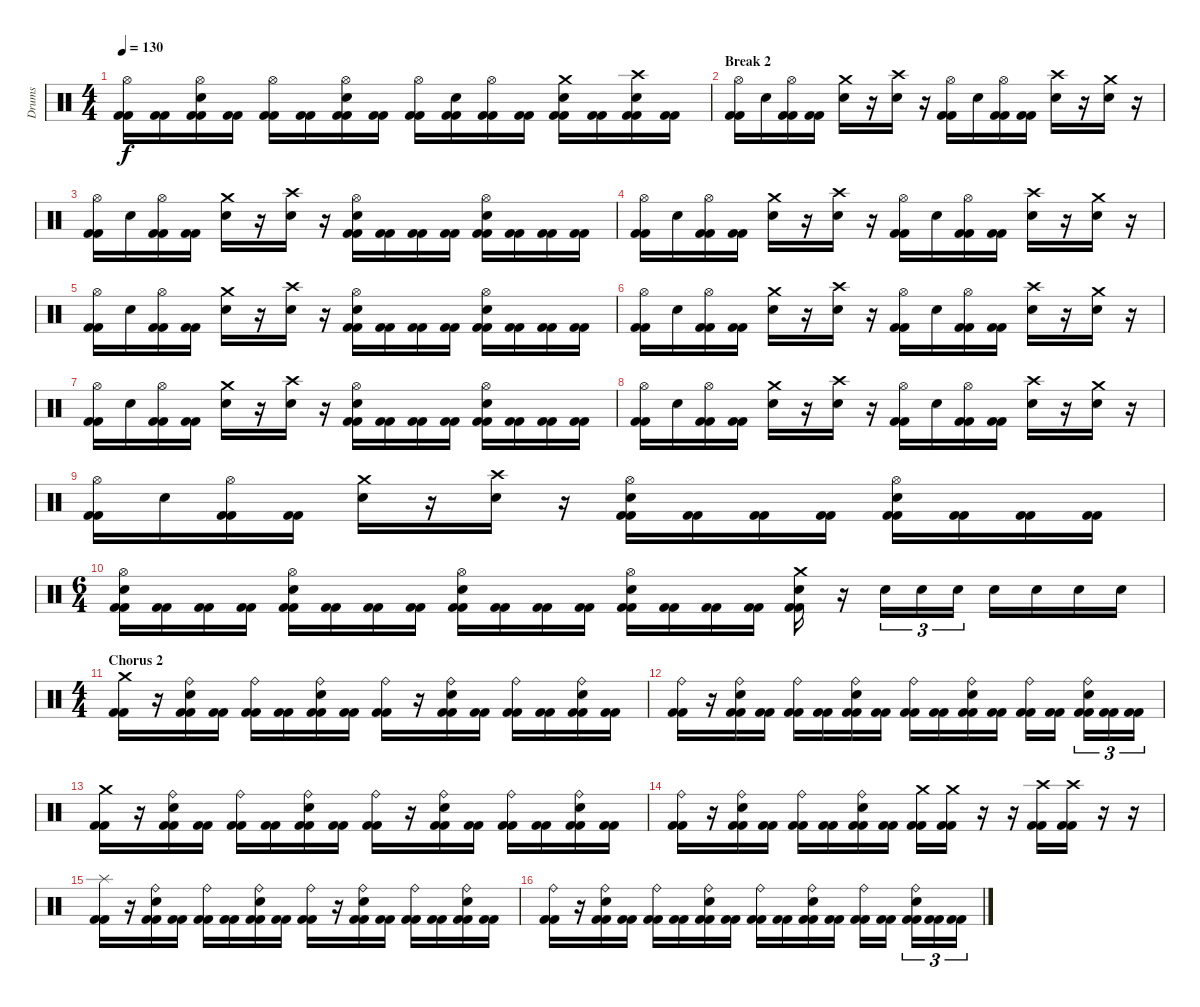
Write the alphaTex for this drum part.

\track ("Drums" "Drums") {instrument percussion}
\staff {score}
\articulation defaults
\ts (4 4)
\tempo 130
\clef neutral
\ks c
("Hi-Hat (open)" "Kick (hit) 2" "Kick (hit) 2").16{dy f} ("Kick (hit) 2" "Kick (hit) 2").16 ("Hi-Hat (open)" "Electric Snare (hit)" "Kick (hit) 2" "Kick (hit) 2").16 ("Kick (hit) 2" "Kick (hit) 2").16 ("Hi-Hat (open)" "Kick (hit) 2" "Kick (hit) 2").16 ("Kick (hit) 2" "Kick (hit) 2").16 ("Hi-Hat (open)" "Electric Snare (hit)" "Kick (hit) 2" "Kick (hit) 2").16 ("Kick (hit) 2" "Kick (hit) 2").16 ("Hi-Hat (open)" "Kick (hit) 2" "Kick (hit) 2").16 ("Electric Snare (hit)" "Kick (hit) 2" "Kick (hit) 2").16 ("Hi-Hat (open)" "Kick (hit) 2" "Kick (hit) 2").16 ("Kick (hit) 2" "Kick (hit) 2").16 ("Crash medium (hit)" "Electric Snare (hit)" "Kick (hit) 2" "Kick (hit) 2").16 ("Kick (hit) 2" "Kick (hit) 2").16 ("Crash high (hit)" "Electric Snare (hit)" "Kick (hit) 2" "Kick (hit) 2").16 ("Kick (hit) 2" "Kick (hit) 2").16 |
\section ("" "Break 2")
("Hi-Hat (open)" "Kick (hit) 2" "Kick (hit) 2").16 "Electric Snare (hit)".16 ("Hi-Hat (open)" "Kick (hit) 2" "Kick (hit) 2").16 ("Kick (hit) 2" "Kick (hit) 2").16 ("Crash medium (hit)" "Electric Snare (hit)").16 r.16 ("Crash high (hit)" "Electric Snare (hit)").16 r.16 ("Hi-Hat (open)" "Kick (hit) 2" "Kick (hit) 2").16 "Electric Snare (hit)".16 ("Hi-Hat (open)" "Kick (hit) 2" "Kick (hit) 2").16 ("Kick (hit) 2" "Kick (hit) 2").16 ("Crash high (hit)" "Electric Snare (hit)").16 r.16 ("Crash medium (hit)" "Electric Snare (hit)").16 r.16 |
("Hi-Hat (open)" "Kick (hit) 2" "Kick (hit) 2").16 "Electric Snare (hit)".16 ("Hi-Hat (open)" "Kick (hit) 2" "Kick (hit) 2").16 ("Kick (hit) 2" "Kick (hit) 2").16 ("Crash medium (hit)" "Electric Snare (hit)").16 r.16 ("Crash high (hit)" "Electric Snare (hit)").16 r.16 ("Hi-Hat (open)" "Electric Snare (hit)" "Kick (hit) 2" "Kick (hit) 2").16 ("Kick (hit) 2" "Kick (hit) 2").16 ("Kick (hit) 2" "Kick (hit) 2").16 ("Kick (hit) 2" "Kick (hit) 2").16 ("Hi-Hat (open)" "Electric Snare (hit)" "Kick (hit) 2" "Kick (hit) 2").16 ("Kick (hit) 2" "Kick (hit) 2").16 ("Kick (hit) 2" "Kick (hit) 2").16 ("Kick (hit) 2" "Kick (hit) 2").16 |
("Hi-Hat (open)" "Kick (hit) 2" "Kick (hit) 2").16 "Electric Snare (hit)".16 ("Hi-Hat (open)" "Kick (hit) 2" "Kick (hit) 2").16 ("Kick (hit) 2" "Kick (hit) 2").16 ("Crash medium (hit)" "Electric Snare (hit)").16 r.16 ("Crash high (hit)" "Electric Snare (hit)").16 r.16 ("Hi-Hat (open)" "Kick (hit) 2" "Kick (hit) 2").16 "Electric Snare (hit)".16 ("Hi-Hat (open)" "Kick (hit) 2" "Kick (hit) 2").16 ("Kick (hit) 2" "Kick (hit) 2").16 ("Crash high (hit)" "Electric Snare (hit)").16 r.16 ("Crash medium (hit)" "Electric Snare (hit)").16 r.16 |
("Hi-Hat (open)" "Kick (hit) 2" "Kick (hit) 2").16 "Electric Snare (hit)".16 ("Hi-Hat (open)" "Kick (hit) 2" "Kick (hit) 2").16 ("Kick (hit) 2" "Kick (hit) 2").16 ("Crash medium (hit)" "Electric Snare (hit)").16 r.16 ("Crash high (hit)" "Electric Snare (hit)").16 r.16 ("Hi-Hat (open)" "Electric Snare (hit)" "Kick (hit) 2" "Kick (hit) 2").16 ("Kick (hit) 2" "Kick (hit) 2").16 ("Kick (hit) 2" "Kick (hit) 2").16 ("Kick (hit) 2" "Kick (hit) 2").16 ("Hi-Hat (open)" "Electric Snare (hit)" "Kick (hit) 2" "Kick (hit) 2").16 ("Kick (hit) 2" "Kick (hit) 2").16 ("Kick (hit) 2" "Kick (hit) 2").16 ("Kick (hit) 2" "Kick (hit) 2").16 |
("Hi-Hat (open)" "Kick (hit) 2" "Kick (hit) 2").16 "Electric Snare (hit)".16 ("Hi-Hat (open)" "Kick (hit) 2" "Kick (hit) 2").16 ("Kick (hit) 2" "Kick (hit) 2").16 ("Crash medium (hit)" "Electric Snare (hit)").16 r.16 ("Crash high (hit)" "Electric Snare (hit)").16 r.16 ("Hi-Hat (open)" "Kick (hit) 2" "Kick (hit) 2").16 "Electric Snare (hit)".16 ("Hi-Hat (open)" "Kick (hit) 2" "Kick (hit) 2").16 ("Kick (hit) 2" "Kick (hit) 2").16 ("Crash high (hit)" "Electric Snare (hit)").16 r.16 ("Crash medium (hit)" "Electric Snare (hit)").16 r.16 |
("Hi-Hat (open)" "Kick (hit) 2" "Kick (hit) 2").16 "Electric Snare (hit)".16 ("Hi-Hat (open)" "Kick (hit) 2" "Kick (hit) 2").16 ("Kick (hit) 2" "Kick (hit) 2").16 ("Crash medium (hit)" "Electric Snare (hit)").16 r.16 ("Crash high (hit)" "Electric Snare (hit)").16 r.16 ("Hi-Hat (open)" "Electric Snare (hit)" "Kick (hit) 2" "Kick (hit) 2").16 ("Kick (hit) 2" "Kick (hit) 2").16 ("Kick (hit) 2" "Kick (hit) 2").16 ("Kick (hit) 2" "Kick (hit) 2").16 ("Hi-Hat (open)" "Electric Snare (hit)" "Kick (hit) 2" "Kick (hit) 2").16 ("Kick (hit) 2" "Kick (hit) 2").16 ("Kick (hit) 2" "Kick (hit) 2").16 ("Kick (hit) 2" "Kick (hit) 2").16 |
("Hi-Hat (open)" "Kick (hit) 2" "Kick (hit) 2").16 "Electric Snare (hit)".16 ("Hi-Hat (open)" "Kick (hit) 2" "Kick (hit) 2").16 ("Kick (hit) 2" "Kick (hit) 2").16 ("Crash medium (hit)" "Electric Snare (hit)").16 r.16 ("Crash high (hit)" "Electric Snare (hit)").16 r.16 ("Hi-Hat (open)" "Kick (hit) 2" "Kick (hit) 2").16 "Electric Snare (hit)".16 ("Hi-Hat (open)" "Kick (hit) 2" "Kick (hit) 2").16 ("Kick (hit) 2" "Kick (hit) 2").16 ("Crash high (hit)" "Electric Snare (hit)").16 r.16 ("Crash medium (hit)" "Electric Snare (hit)").16 r.16 |
("Hi-Hat (open)" "Kick (hit) 2" "Kick (hit) 2").16 "Electric Snare (hit)".16 ("Hi-Hat (open)" "Kick (hit) 2" "Kick (hit) 2").16 ("Kick (hit) 2" "Kick (hit) 2").16 ("Crash medium (hit)" "Electric Snare (hit)").16 r.16 ("Crash high (hit)" "Electric Snare (hit)").16 r.16 ("Hi-Hat (open)" "Electric Snare (hit)" "Kick (hit) 2" "Kick (hit) 2").16 ("Kick (hit) 2" "Kick (hit) 2").16 ("Kick (hit) 2" "Kick (hit) 2").16 ("Kick (hit) 2" "Kick (hit) 2").16 ("Hi-Hat (open)" "Electric Snare (hit)" "Kick (hit) 2" "Kick (hit) 2").16 ("Kick (hit) 2" "Kick (hit) 2").16 ("Kick (hit) 2" "Kick (hit) 2").16 ("Kick (hit) 2" "Kick (hit) 2").16 |
\ts (6 4)
("Hi-Hat (open)" "Electric Snare (hit)" "Kick (hit) 2" "Kick (hit) 2").16 ("Kick (hit) 2" "Kick (hit) 2").16 ("Kick (hit) 2" "Kick (hit) 2").16 ("Kick (hit) 2" "Kick (hit) 2").16 ("Hi-Hat (open)" "Electric Snare (hit)" "Kick (hit) 2" "Kick (hit) 2").16 ("Kick (hit) 2" "Kick (hit) 2").16 ("Kick (hit) 2" "Kick (hit) 2").16 ("Kick (hit) 2" "Kick (hit) 2").16 ("Hi-Hat (open)" "Electric Snare (hit)" "Kick (hit) 2" "Kick (hit) 2").16 ("Kick (hit) 2" "Kick (hit) 2").16 ("Kick (hit) 2" "Kick (hit) 2").16 ("Kick (hit) 2" "Kick (hit) 2").16 ("Hi-Hat (open)" "Electric Snare (hit)" "Kick (hit) 2" "Kick (hit) 2").16 ("Kick (hit) 2" "Kick (hit) 2").16 ("Kick (hit) 2" "Kick (hit) 2").16 ("Kick (hit) 2" "Kick (hit) 2").16 ("Crash medium (hit)" "Electric Snare (hit)" "Kick (hit) 2" "Kick (hit) 2").16 r.16 "Electric Snare (hit)".16{tu (3 2)} "Electric Snare (hit)".16{tu (3 2)} "Electric Snare (hit)".16{tu (3 2)} "Electric Snare (hit)".16 "Electric Snare (hit)".16 "Electric Snare (hit)".16 "Electric Snare (hit)".16 |
\ts (4 4)
\section ("" "Chorus 2")
("Crash medium (hit)" "Kick (hit) 2" "Kick (hit) 2").16 r.16 ("Ride (bell)" "Electric Snare (hit)" "Kick (hit) 2" "Kick (hit) 2").16 ("Kick (hit) 2" "Kick (hit) 2").16 ("Ride (bell)" "Kick (hit) 2" "Kick (hit) 2").16 ("Kick (hit) 2" "Kick (hit) 2").16 ("Ride (bell)" "Electric Snare (hit)" "Kick (hit) 2" "Kick (hit) 2").16 ("Kick (hit) 2" "Kick (hit) 2").16 ("Ride (bell)" "Kick (hit) 2" "Kick (hit) 2").16 r.16 ("Ride (bell)" "Electric Snare (hit)" "Kick (hit) 2" "Kick (hit) 2").16 ("Kick (hit) 2" "Kick (hit) 2").16 ("Ride (bell)" "Kick (hit) 2" "Kick (hit) 2").16 ("Kick (hit) 2" "Kick (hit) 2").16 ("Ride (bell)" "Electric Snare (hit)" "Kick (hit) 2" "Kick (hit) 2").16 ("Kick (hit) 2" "Kick (hit) 2").16 |
("Ride (bell)" "Kick (hit) 2" "Kick (hit) 2").16 r.16 ("Ride (bell)" "Electric Snare (hit)" "Kick (hit) 2" "Kick (hit) 2").16 ("Kick (hit) 2" "Kick (hit) 2").16 ("Ride (bell)" "Kick (hit) 2" "Kick (hit) 2").16 ("Kick (hit) 2" "Kick (hit) 2").16 ("Ride (bell)" "Electric Snare (hit)" "Kick (hit) 2" "Kick (hit) 2").16 ("Kick (hit) 2" "Kick (hit) 2").16 ("Ride (bell)" "Kick (hit) 2" "Kick (hit) 2").16 ("Kick (hit) 2" "Kick (hit) 2").16 ("Ride (bell)" "Electric Snare (hit)" "Kick (hit) 2" "Kick (hit) 2").16 ("Kick (hit) 2" "Kick (hit) 2").16 ("Ride (bell)" "Kick (hit) 2" "Kick (hit) 2").16 ("Kick (hit) 2" "Kick (hit) 2").16 ("Ride (bell)" "Electric Snare (hit)" "Kick (hit) 2" "Kick (hit) 2").16{tu (3 2)} ("Kick (hit) 2" "Kick (hit) 2").16{tu (3 2)} ("Kick (hit) 2" "Kick (hit) 2").16{tu (3 2)} |
("Crash medium (hit)" "Kick (hit) 2" "Kick (hit) 2").16 r.16 ("Ride (bell)" "Electric Snare (hit)" "Kick (hit) 2" "Kick (hit) 2").16 ("Kick (hit) 2" "Kick (hit) 2").16 ("Ride (bell)" "Kick (hit) 2" "Kick (hit) 2").16 ("Kick (hit) 2" "Kick (hit) 2").16 ("Ride (bell)" "Electric Snare (hit)" "Kick (hit) 2" "Kick (hit) 2").16 ("Kick (hit) 2" "Kick (hit) 2").16 ("Ride (bell)" "Kick (hit) 2" "Kick (hit) 2").16 r.16 ("Ride (bell)" "Electric Snare (hit)" "Kick (hit) 2" "Kick (hit) 2").16 ("Kick (hit) 2" "Kick (hit) 2").16 ("Ride (bell)" "Kick (hit) 2" "Kick (hit) 2").16 ("Kick (hit) 2" "Kick (hit) 2").16 ("Ride (bell)" "Electric Snare (hit)" "Kick (hit) 2" "Kick (hit) 2").16 ("Kick (hit) 2" "Kick (hit) 2").16 |
("Ride (bell)" "Kick (hit) 2" "Kick (hit) 2").16 r.16 ("Ride (bell)" "Electric Snare (hit)" "Kick (hit) 2" "Kick (hit) 2").16 ("Kick (hit) 2" "Kick (hit) 2").16 ("Ride (bell)" "Kick (hit) 2" "Kick (hit) 2").16 ("Kick (hit) 2" "Kick (hit) 2").16 ("Ride (bell)" "Electric Snare (hit)" "Kick (hit) 2" "Kick (hit) 2").16 ("Kick (hit) 2" "Kick (hit) 2").16 ("Crash medium (hit)" "Kick (hit) 2" "Kick (hit) 2").16 ("Crash medium (hit)" "Kick (hit) 2" "Kick (hit) 2").16 r.16 r.16 ("Crash high (hit)" "Kick (hit) 2" "Kick (hit) 2").16 ("Crash high (hit)" "Kick (hit) 2" "Kick (hit) 2").16 r.16 r.16 |
("Splash (hit)" "Kick (hit) 2" "Kick (hit) 2").16 r.16 ("Ride (bell)" "Electric Snare (hit)" "Kick (hit) 2" "Kick (hit) 2").16 ("Kick (hit) 2" "Kick (hit) 2").16 ("Ride (bell)" "Kick (hit) 2" "Kick (hit) 2").16 ("Kick (hit) 2" "Kick (hit) 2").16 ("Ride (bell)" "Electric Snare (hit)" "Kick (hit) 2" "Kick (hit) 2").16 ("Kick (hit) 2" "Kick (hit) 2").16 ("Ride (bell)" "Kick (hit) 2" "Kick (hit) 2").16 r.16 ("Ride (bell)" "Electric Snare (hit)" "Kick (hit) 2" "Kick (hit) 2").16 ("Kick (hit) 2" "Kick (hit) 2").16 ("Ride (bell)" "Kick (hit) 2" "Kick (hit) 2").16 ("Kick (hit) 2" "Kick (hit) 2").16 ("Ride (bell)" "Electric Snare (hit)" "Kick (hit) 2" "Kick (hit) 2").16 ("Kick (hit) 2" "Kick (hit) 2").16 |
("Ride (bell)" "Kick (hit) 2" "Kick (hit) 2").16 r.16 ("Ride (bell)" "Electric Snare (hit)" "Kick (hit) 2" "Kick (hit) 2").16 ("Kick (hit) 2" "Kick (hit) 2").16 ("Ride (bell)" "Kick (hit) 2" "Kick (hit) 2").16 ("Kick (hit) 2" "Kick (hit) 2").16 ("Ride (bell)" "Electric Snare (hit)" "Kick (hit) 2" "Kick (hit) 2").16 ("Kick (hit) 2" "Kick (hit) 2").16 ("Ride (bell)" "Kick (hit) 2" "Kick (hit) 2").16 ("Kick (hit) 2" "Kick (hit) 2").16 ("Ride (bell)" "Electric Snare (hit)" "Kick (hit) 2" "Kick (hit) 2").16 ("Kick (hit) 2" "Kick (hit) 2").16 ("Ride (bell)" "Kick (hit) 2" "Kick (hit) 2").16 ("Kick (hit) 2" "Kick (hit) 2").16 ("Ride (bell)" "Electric Snare (hit)" "Kick (hit) 2" "Kick (hit) 2").16{tu (3 2)} ("Kick (hit) 2" "Kick (hit) 2").16{tu (3 2)} ("Kick (hit) 2" "Kick (hit) 2").16{tu (3 2)}
